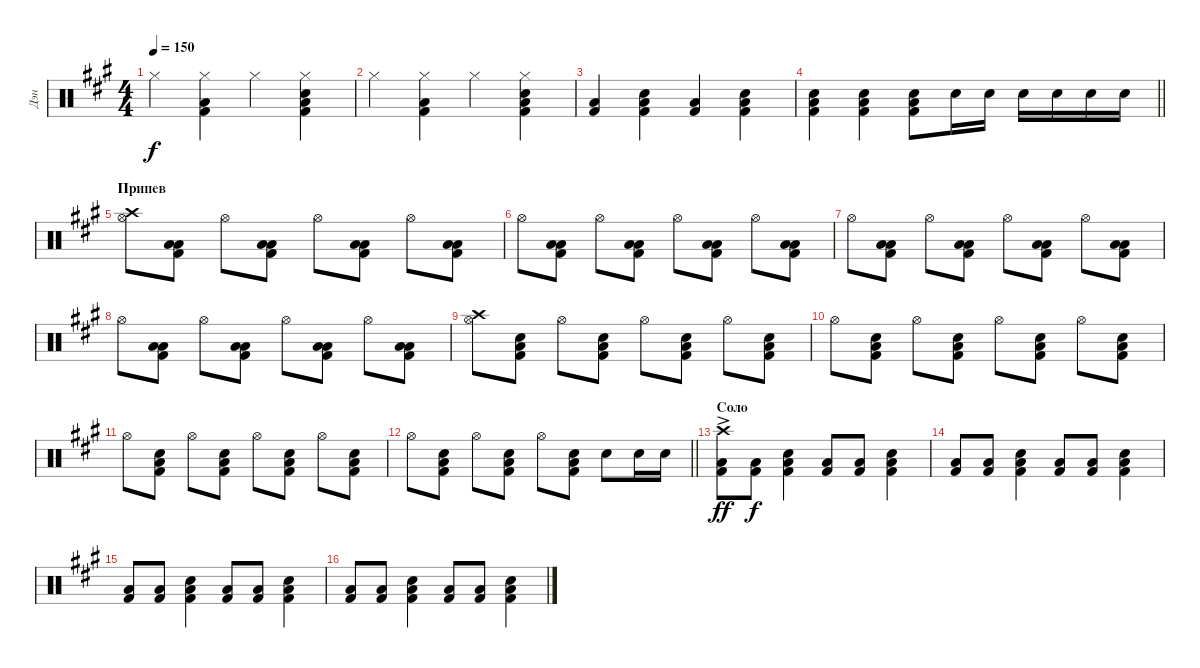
\track ("Дэн" "Дэн") {instrument percussion}
\staff {score}
\articulation defaults
\ts (4 4)
\tempo 150
\clef neutral
\ks f#minor "Hi-Hat (closed)".4{dy f}
("Hi-Hat (closed)" "Low Tom (hit)" "Kick (hit) 2").4 "Hi-Hat (closed)".4 ("Hi-Hat (closed)" "Electric Snare (hit)" "Low Tom (hit)" "Kick (hit) 2").4 |
"Hi-Hat (closed)".4 ("Hi-Hat (closed)" "Low Tom (hit)" "Kick (hit) 2").4 "Hi-Hat (closed)".4 ("Hi-Hat (closed)" "Electric Snare (hit)" "Low Tom (hit)" "Kick (hit) 2").4 |
("Low Tom (hit)" "Kick (hit) 2").4 ("Electric Snare (hit)" "Low Tom (hit)" "Kick (hit) 2").4 ("Low Tom (hit)" "Kick (hit) 2").4 ("Electric Snare (hit)" "Low Tom (hit)" "Kick (hit) 2").4 |
\barLineRight lightlight
("Electric Snare (hit)" "Low Tom (hit)" "Kick (hit) 2").4 ("Electric Snare (hit)" "Low Tom (hit)" "Kick (hit) 2").4 ("Electric Snare (hit)" "Low Tom (hit)" "Kick (hit) 2").8 "Electric Snare (hit)".16 "Electric Snare (hit)".16 "Electric Snare (hit)".16 "Electric Snare (hit)".16 "Electric Snare (hit)".16 "Electric Snare (hit)".16 |
\section ("" "Припев")
("Crash high (hit)" "Hi-Hat (open)").8 ("Low Tom (hit)" "Low Tom (hit)" "Kick (hit) 2").8 "Hi-Hat (open)".8 ("Low Tom (hit)" "Low Tom (hit)" "Kick (hit) 2").8 "Hi-Hat (open)".8 ("Low Tom (hit)" "Low Tom (hit)" "Kick (hit) 2").8 "Hi-Hat (open)".8 ("Low Tom (hit)" "Low Tom (hit)" "Kick (hit) 2").8 |
"Hi-Hat (open)".8 ("Low Tom (hit)" "Low Tom (hit)" "Kick (hit) 2").8 "Hi-Hat (open)".8 ("Low Tom (hit)" "Low Tom (hit)" "Kick (hit) 2").8 "Hi-Hat (open)".8 ("Low Tom (hit)" "Low Tom (hit)" "Kick (hit) 2").8 "Hi-Hat (open)".8 ("Low Tom (hit)" "Low Tom (hit)" "Kick (hit) 2").8 |
"Hi-Hat (open)".8 ("Low Tom (hit)" "Low Tom (hit)" "Kick (hit) 2").8 "Hi-Hat (open)".8 ("Low Tom (hit)" "Low Tom (hit)" "Kick (hit) 2").8 "Hi-Hat (open)".8 ("Low Tom (hit)" "Low Tom (hit)" "Kick (hit) 2").8 "Hi-Hat (open)".8 ("Low Tom (hit)" "Low Tom (hit)" "Kick (hit) 2").8 |
"Hi-Hat (open)".8 ("Low Tom (hit)" "Low Tom (hit)" "Kick (hit) 2").8 "Hi-Hat (open)".8 ("Low Tom (hit)" "Low Tom (hit)" "Kick (hit) 2").8 "Hi-Hat (open)".8 ("Low Tom (hit)" "Low Tom (hit)" "Kick (hit) 2").8 "Hi-Hat (open)".8 ("Low Tom (hit)" "Low Tom (hit)" "Kick (hit) 2").8 |
("Crash high (hit)" "Hi-Hat (open)").8 ("Electric Snare (hit)" "Low Tom (hit)" "Kick (hit) 2").8 "Hi-Hat (open)".8 ("Electric Snare (hit)" "Low Tom (hit)" "Kick (hit) 2").8 "Hi-Hat (open)".8 ("Electric Snare (hit)" "Low Tom (hit)" "Kick (hit) 2").8 "Hi-Hat (open)".8 ("Electric Snare (hit)" "Low Tom (hit)" "Kick (hit) 2").8 |
"Hi-Hat (open)".8 ("Electric Snare (hit)" "Low Tom (hit)" "Kick (hit) 2").8 "Hi-Hat (open)".8 ("Electric Snare (hit)" "Low Tom (hit)" "Kick (hit) 2").8 "Hi-Hat (open)".8 ("Electric Snare (hit)" "Low Tom (hit)" "Kick (hit) 2").8 "Hi-Hat (open)".8 ("Electric Snare (hit)" "Low Tom (hit)" "Kick (hit) 2").8 |
"Hi-Hat (open)".8 ("Electric Snare (hit)" "Low Tom (hit)" "Kick (hit) 2").8 "Hi-Hat (open)".8 ("Electric Snare (hit)" "Low Tom (hit)" "Kick (hit) 2").8 "Hi-Hat (open)".8 ("Electric Snare (hit)" "Low Tom (hit)" "Kick (hit) 2").8 "Hi-Hat (open)".8 ("Electric Snare (hit)" "Low Tom (hit)" "Kick (hit) 2").8 |
\barLineRight lightlight "Hi-Hat (open)".8
("Electric Snare (hit)" "Low Tom (hit)" "Kick (hit) 2").8 "Hi-Hat (open)".8 ("Electric Snare (hit)" "Low Tom (hit)" "Kick (hit) 2").8 "Hi-Hat (open)".8 ("Electric Snare (hit)" "Low Tom (hit)" "Kick (hit) 2").8 "Electric Snare (hit)".8 "Electric Snare (hit)".16 "Electric Snare (hit)".16 |
\section ("" "Соло")
("Crash high (hit)"{ac} "Low Tom (hit)" "Kick (hit) 2").8{dy ff} ("Low Tom (hit)" "Kick (hit) 2").8{dy f} ("Electric Snare (hit)" "Low Tom (hit)" "Kick (hit) 2").4 ("Low Tom (hit)" "Kick (hit) 2").8 ("Low Tom (hit)" "Kick (hit) 2").8 ("Electric Snare (hit)" "Low Tom (hit)" "Kick (hit) 2").4 |
("Low Tom (hit)" "Kick (hit) 2").8 ("Low Tom (hit)" "Kick (hit) 2").8 ("Electric Snare (hit)" "Low Tom (hit)" "Kick (hit) 2").4 ("Low Tom (hit)" "Kick (hit) 2").8 ("Low Tom (hit)" "Kick (hit) 2").8 ("Electric Snare (hit)" "Low Tom (hit)" "Kick (hit) 2").4 |
("Low Tom (hit)" "Kick (hit) 2").8 ("Low Tom (hit)" "Kick (hit) 2").8 ("Electric Snare (hit)" "Low Tom (hit)" "Kick (hit) 2").4 ("Low Tom (hit)" "Kick (hit) 2").8 ("Low Tom (hit)" "Kick (hit) 2").8 ("Electric Snare (hit)" "Low Tom (hit)" "Kick (hit) 2").4 |
("Low Tom (hit)" "Kick (hit) 2").8 ("Low Tom (hit)" "Kick (hit) 2").8 ("Electric Snare (hit)" "Low Tom (hit)" "Kick (hit) 2").4 ("Low Tom (hit)" "Kick (hit) 2").8 ("Low Tom (hit)" "Kick (hit) 2").8 ("Electric Snare (hit)" "Low Tom (hit)" "Kick (hit) 2").4
